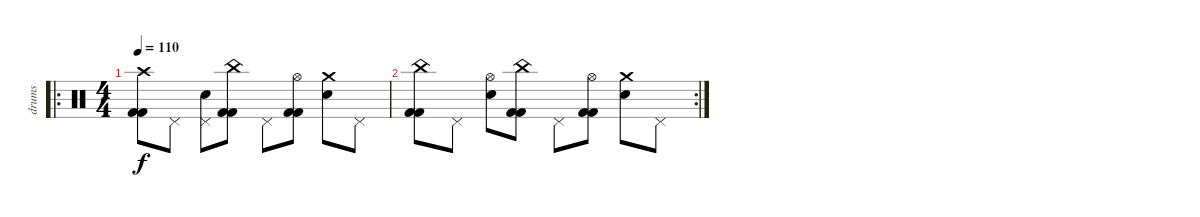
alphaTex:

\track ("drums" "drums") {instrument percussion}
\staff {score}
\articulation defaults
\ro
\ts (4 4)
\tempo 110
\clef neutral
\ks c
("Crash high (hit)" "Kick (hit) 2" "Kick (hit) 2").8{dy f} "Pedal Hi-Hat (hit)".8 ("Pedal Hi-Hat (hit)" "Electric Snare (hit)").8 ("China (hit)" "Kick (hit) 2" "Kick (hit) 2").8 "Pedal Hi-Hat (hit)".8 ("Hi-Hat (open)" "Kick (hit) 2" "Kick (hit) 2").8 ("Crash medium (hit)" "Electric Snare (hit)").8 "Pedal Hi-Hat (hit)".8 |
\rc 2
("China (hit)" "Kick (hit) 2" "Kick (hit) 2").8 "Pedal Hi-Hat (hit)".8 ("Hi-Hat (open)" "Electric Snare (hit)").8 ("China (hit)" "Kick (hit) 2" "Kick (hit) 2").8 "Pedal Hi-Hat (hit)".8 ("Hi-Hat (open)" "Kick (hit) 2" "Kick (hit) 2").8 ("Crash medium (hit)" "Electric Snare (hit)").8 "Pedal Hi-Hat (hit)".8
